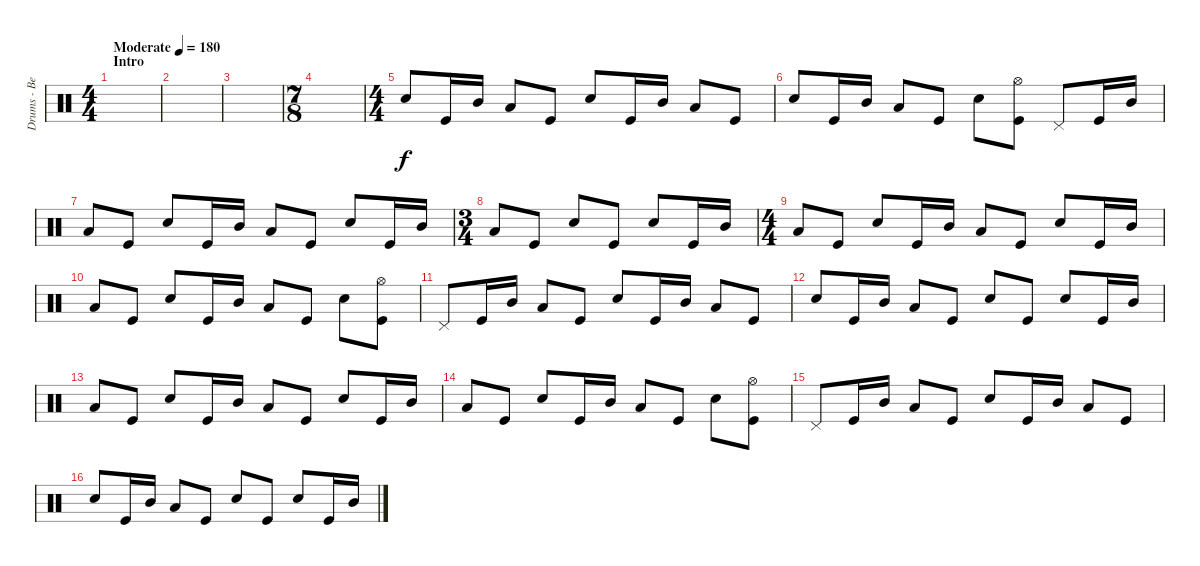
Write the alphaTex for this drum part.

\track ("Drums - Ben Johnston" "Drums - Be") {instrument percussion}
\staff {score}
\articulation defaults
\ts (4 4)
\section ("" "Intro")
\tempo (180 "Moderate")
\clef neutral
\ks c
|
|
|
\ts (7 8)
|
\ts (4 4)
"Snare (hit) 2".8 "Kick (hit)".16 "Mid Tom (hit)".16 "Low Tom (hit)".8 "Kick (hit)".8 "Snare (hit) 2".8 "Kick (hit)".16 "Mid Tom (hit)".16 "Low Tom (hit)".8 "Kick (hit)".8 |
"Snare (hit) 2".8 "Kick (hit)".16 "Mid Tom (hit)".16 "Low Tom (hit)".8 "Kick (hit)".8 "Snare (hit) 2".8 ("Hi-Hat (open)" "Kick (hit)").8 "Pedal Hi-Hat (hit)".8 "Kick (hit)".16 "Mid Tom (hit)".16 |
"Low Tom (hit)".8 "Kick (hit)".8 "Snare (hit) 2".8 "Kick (hit)".16 "Mid Tom (hit)".16 "Low Tom (hit)".8 "Kick (hit)".8 "Snare (hit) 2".8 "Kick (hit)".16 "Mid Tom (hit)".16 |
\ts (3 4)
"Low Tom (hit)".8 "Kick (hit)".8 "Snare (hit) 2".8 "Kick (hit)".8 "Snare (hit) 2".8 "Kick (hit)".16 "Mid Tom (hit)".16 |
\ts (4 4)
"Low Tom (hit)".8 "Kick (hit)".8 "Snare (hit) 2".8 "Kick (hit)".16 "Mid Tom (hit)".16 "Low Tom (hit)".8 "Kick (hit)".8 "Snare (hit) 2".8 "Kick (hit)".16 "Mid Tom (hit)".16 |
"Low Tom (hit)".8 "Kick (hit)".8 "Snare (hit) 2".8 "Kick (hit)".16 "Mid Tom (hit)".16 "Low Tom (hit)".8 "Kick (hit)".8 "Snare (hit) 2".8 ("Hi-Hat (open)" "Kick (hit)").8 |
"Pedal Hi-Hat (hit)".8 "Kick (hit)".16 "Mid Tom (hit)".16 "Low Tom (hit)".8 "Kick (hit)".8 "Snare (hit) 2".8 "Kick (hit)".16 "Mid Tom (hit)".16 "Low Tom (hit)".8 "Kick (hit)".8 |
"Snare (hit) 2".8 "Kick (hit)".16 "Mid Tom (hit)".16 "Low Tom (hit)".8 "Kick (hit)".8 "Snare (hit) 2".8 "Kick (hit)".8 "Snare (hit) 2".8 "Kick (hit)".16 "Mid Tom (hit)".16 |
"Low Tom (hit)".8 "Kick (hit)".8 "Snare (hit) 2".8 "Kick (hit)".16 "Mid Tom (hit)".16 "Low Tom (hit)".8 "Kick (hit)".8 "Snare (hit) 2".8 "Kick (hit)".16 "Mid Tom (hit)".16 |
"Low Tom (hit)".8 "Kick (hit)".8 "Snare (hit) 2".8 "Kick (hit)".16 "Mid Tom (hit)".16 "Low Tom (hit)".8 "Kick (hit)".8 "Snare (hit) 2".8 ("Hi-Hat (open)" "Kick (hit)").8 |
"Pedal Hi-Hat (hit)".8 "Kick (hit)".16 "Mid Tom (hit)".16 "Low Tom (hit)".8 "Kick (hit)".8 "Snare (hit) 2".8 "Kick (hit)".16 "Mid Tom (hit)".16 "Low Tom (hit)".8 "Kick (hit)".8 |
"Snare (hit) 2".8 "Kick (hit)".16 "Mid Tom (hit)".16 "Low Tom (hit)".8 "Kick (hit)".8 "Snare (hit) 2".8 "Kick (hit)".8 "Snare (hit) 2".8 "Kick (hit)".16 "Mid Tom (hit)".16
